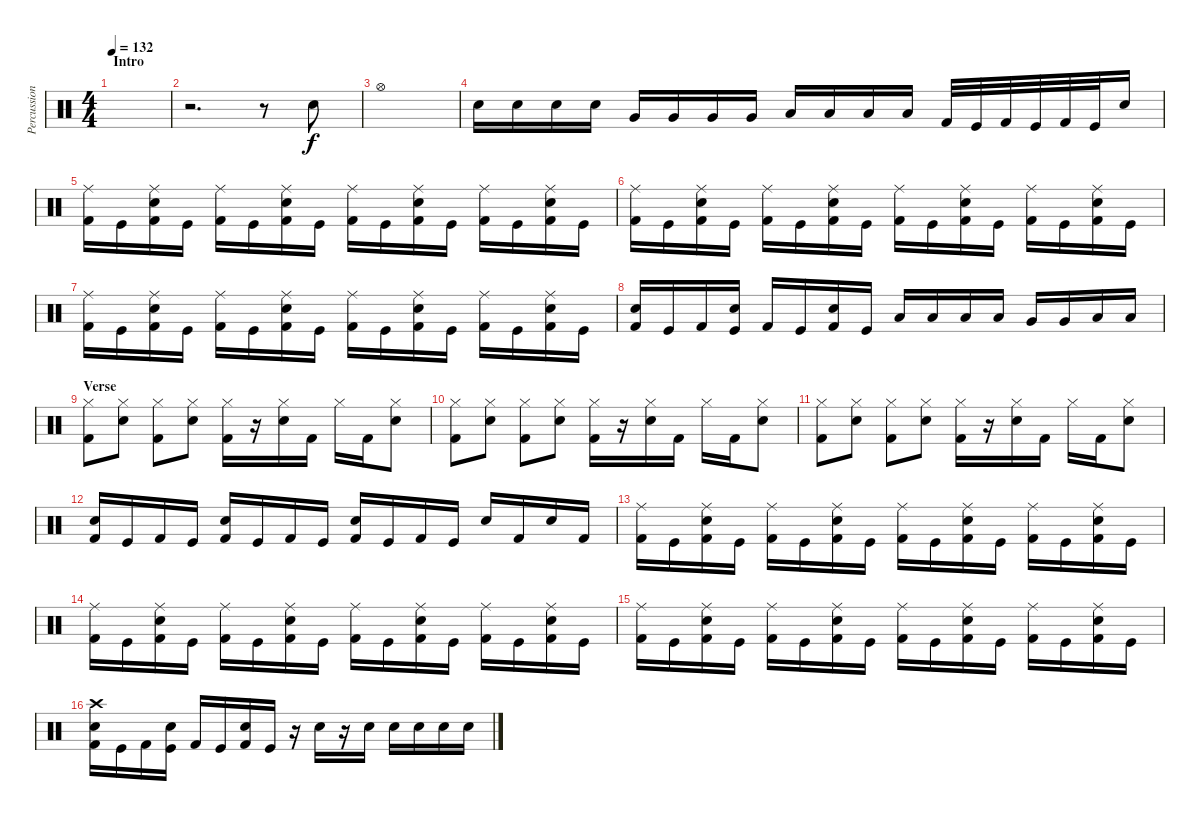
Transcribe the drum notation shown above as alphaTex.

\track ("Percussion" "Percussion") {instrument percussion}
\staff {score}
\articulation defaults
\ts (4 4)
\section ("" "Intro")
\tempo 132
\clef neutral
\ks c
|
r.2{d} r.8 "Electric Snare (hit)".8 |
"Hi-Hat (open)".1 |
"Electric Snare (hit)".16 "Electric Snare (hit)".16 "Electric Snare (hit)".16 "Electric Snare (hit)".16 "Very Low Tom (hit)".16 "Very Low Tom (hit)".16 "Very Low Tom (hit)".16 "Very Low Tom (hit)".16 "Low Floor Tom (hit)".16 "Low Floor Tom (hit)".16 "Low Floor Tom (hit)".16 "Low Floor Tom (hit)".16 "Kick (hit) 2".32 "Kick (hit)".32 "Kick (hit) 2".32 "Kick (hit)".32 "Kick (hit) 2".32 "Kick (hit)".32 "Electric Snare (hit)".16 |
("Kick (hit) 2" "Ride (middle)").16 "Kick (hit)".16 ("Kick (hit) 2" "Electric Snare (hit)" "Ride (middle)").16 "Kick (hit)".16 ("Kick (hit) 2" "Ride (middle)").16 "Kick (hit)".16 ("Kick (hit) 2" "Electric Snare (hit)" "Ride (middle)").16 "Kick (hit)".16 ("Kick (hit) 2" "Ride (middle)").16 "Kick (hit)".16 ("Kick (hit) 2" "Electric Snare (hit)" "Ride (middle)").16 "Kick (hit)".16 ("Kick (hit) 2" "Ride (middle)").16 "Kick (hit)".16 ("Kick (hit) 2" "Electric Snare (hit)" "Ride (middle)").16 "Kick (hit)".16 |
("Kick (hit) 2" "Ride (middle)").16 "Kick (hit)".16 ("Kick (hit) 2" "Electric Snare (hit)" "Ride (middle)").16 "Kick (hit)".16 ("Kick (hit) 2" "Ride (middle)").16 "Kick (hit)".16 ("Kick (hit) 2" "Electric Snare (hit)" "Ride (middle)").16 "Kick (hit)".16 ("Kick (hit) 2" "Ride (middle)").16 "Kick (hit)".16 ("Kick (hit) 2" "Electric Snare (hit)" "Ride (middle)").16 "Kick (hit)".16 ("Kick (hit) 2" "Ride (middle)").16 "Kick (hit)".16 ("Kick (hit) 2" "Electric Snare (hit)" "Ride (middle)").16 "Kick (hit)".16 |
("Kick (hit) 2" "Ride (middle)").16 "Kick (hit)".16 ("Kick (hit) 2" "Electric Snare (hit)" "Ride (middle)").16 "Kick (hit)".16 ("Kick (hit) 2" "Ride (middle)").16 "Kick (hit)".16 ("Kick (hit) 2" "Electric Snare (hit)" "Ride (middle)").16 "Kick (hit)".16 ("Kick (hit) 2" "Ride (middle)").16 "Kick (hit)".16 ("Kick (hit) 2" "Electric Snare (hit)" "Ride (middle)").16 "Kick (hit)".16 ("Kick (hit) 2" "Ride (middle)").16 "Kick (hit)".16 ("Kick (hit) 2" "Electric Snare (hit)" "Ride (middle)").16 "Kick (hit)".16 |
("Kick (hit) 2" "Electric Snare (hit)").16 "Kick (hit)".16 "Kick (hit) 2".16 ("Kick (hit)" "Electric Snare (hit)").16 "Kick (hit) 2".16 "Kick (hit)".16 ("Kick (hit) 2" "Electric Snare (hit)").16 "Kick (hit)".16 "Low Tom (hit)".16 "Low Tom (hit)".16 "Low Tom (hit)".16 "Low Tom (hit)".16 "Very Low Tom (hit)".16 "Very Low Tom (hit)".16 "Low Floor Tom (hit)".16 "Low Floor Tom (hit)".16 |
\section ("" "Verse")
("Kick (hit) 2" "Hi-Hat (closed)").8 ("Electric Snare (hit)" "Hi-Hat (closed)").8 ("Kick (hit) 2" "Hi-Hat (closed)").8 ("Electric Snare (hit)" "Hi-Hat (closed)").8 ("Kick (hit) 2" "Hi-Hat (closed)").16 r.16 ("Electric Snare (hit)" "Hi-Hat (closed)").16 "Kick (hit) 2".16 "Hi-Hat (closed)".16 "Kick (hit) 2".16 ("Electric Snare (hit)" "Hi-Hat (closed)").8 |
("Kick (hit) 2" "Hi-Hat (closed)").8 ("Electric Snare (hit)" "Hi-Hat (closed)").8 ("Kick (hit) 2" "Hi-Hat (closed)").8 ("Electric Snare (hit)" "Hi-Hat (closed)").8 ("Kick (hit) 2" "Hi-Hat (closed)").16 r.16 ("Electric Snare (hit)" "Hi-Hat (closed)").16 "Kick (hit) 2".16 "Hi-Hat (closed)".16 "Kick (hit) 2".16 ("Electric Snare (hit)" "Hi-Hat (closed)").8 |
("Kick (hit) 2" "Hi-Hat (closed)").8 ("Electric Snare (hit)" "Hi-Hat (closed)").8 ("Kick (hit) 2" "Hi-Hat (closed)").8 ("Electric Snare (hit)" "Hi-Hat (closed)").8 ("Kick (hit) 2" "Hi-Hat (closed)").16 r.16 ("Electric Snare (hit)" "Hi-Hat (closed)").16 "Kick (hit) 2".16 "Hi-Hat (closed)".16 "Kick (hit) 2".16 ("Electric Snare (hit)" "Hi-Hat (closed)").8 |
("Kick (hit) 2" "Electric Snare (hit)").16 "Kick (hit)".16 "Kick (hit) 2".16 "Kick (hit)".16 ("Kick (hit) 2" "Electric Snare (hit)").16 "Kick (hit)".16 "Kick (hit) 2".16 "Kick (hit)".16 ("Kick (hit) 2" "Electric Snare (hit)").16 "Kick (hit)".16 "Kick (hit) 2".16 "Kick (hit)".16 "Electric Snare (hit)".16 "Kick (hit) 2".16 "Electric Snare (hit)".16 "Kick (hit) 2".16 |
("Kick (hit) 2" "Ride (middle)").16 "Kick (hit)".16 ("Kick (hit) 2" "Electric Snare (hit)" "Ride (middle)").16 "Kick (hit)".16 ("Kick (hit) 2" "Ride (middle)").16 "Kick (hit)".16 ("Kick (hit) 2" "Electric Snare (hit)" "Ride (middle)").16 "Kick (hit)".16 ("Kick (hit) 2" "Ride (middle)").16 "Kick (hit)".16 ("Kick (hit) 2" "Electric Snare (hit)" "Ride (middle)").16 "Kick (hit)".16 ("Kick (hit) 2" "Ride (middle)").16 "Kick (hit)".16 ("Kick (hit) 2" "Electric Snare (hit)" "Ride (middle)").16 "Kick (hit)".16 |
("Kick (hit) 2" "Ride (middle)").16 "Kick (hit)".16 ("Kick (hit) 2" "Electric Snare (hit)" "Ride (middle)").16 "Kick (hit)".16 ("Kick (hit) 2" "Ride (middle)").16 "Kick (hit)".16 ("Kick (hit) 2" "Electric Snare (hit)" "Ride (middle)").16 "Kick (hit)".16 ("Kick (hit) 2" "Ride (middle)").16 "Kick (hit)".16 ("Kick (hit) 2" "Electric Snare (hit)" "Ride (middle)").16 "Kick (hit)".16 ("Kick (hit) 2" "Ride (middle)").16 "Kick (hit)".16 ("Kick (hit) 2" "Electric Snare (hit)" "Ride (middle)").16 "Kick (hit)".16 |
("Kick (hit) 2" "Ride (middle)").16 "Kick (hit)".16 ("Kick (hit) 2" "Electric Snare (hit)" "Ride (middle)").16 "Kick (hit)".16 ("Kick (hit) 2" "Ride (middle)").16 "Kick (hit)".16 ("Kick (hit) 2" "Electric Snare (hit)" "Ride (middle)").16 "Kick (hit)".16 ("Kick (hit) 2" "Ride (middle)").16 "Kick (hit)".16 ("Kick (hit) 2" "Electric Snare (hit)" "Ride (middle)").16 "Kick (hit)".16 ("Kick (hit) 2" "Ride (middle)").16 "Kick (hit)".16 ("Kick (hit) 2" "Electric Snare (hit)" "Ride (middle)").16 "Kick (hit)".16 |
("Kick (hit) 2" "Electric Snare (hit)" "Crash high (hit)").16 "Kick (hit)".16 "Kick (hit) 2".16 ("Kick (hit)" "Electric Snare (hit)").16 "Kick (hit) 2".16 "Kick (hit)".16 ("Kick (hit) 2" "Electric Snare (hit)").16 "Kick (hit)".16 r.16 "Electric Snare (hit)".16 r.16 "Electric Snare (hit)".16 "Electric Snare (hit)".16 "Electric Snare (hit)".16 "Electric Snare (hit)".16 "Electric Snare (hit)".16
